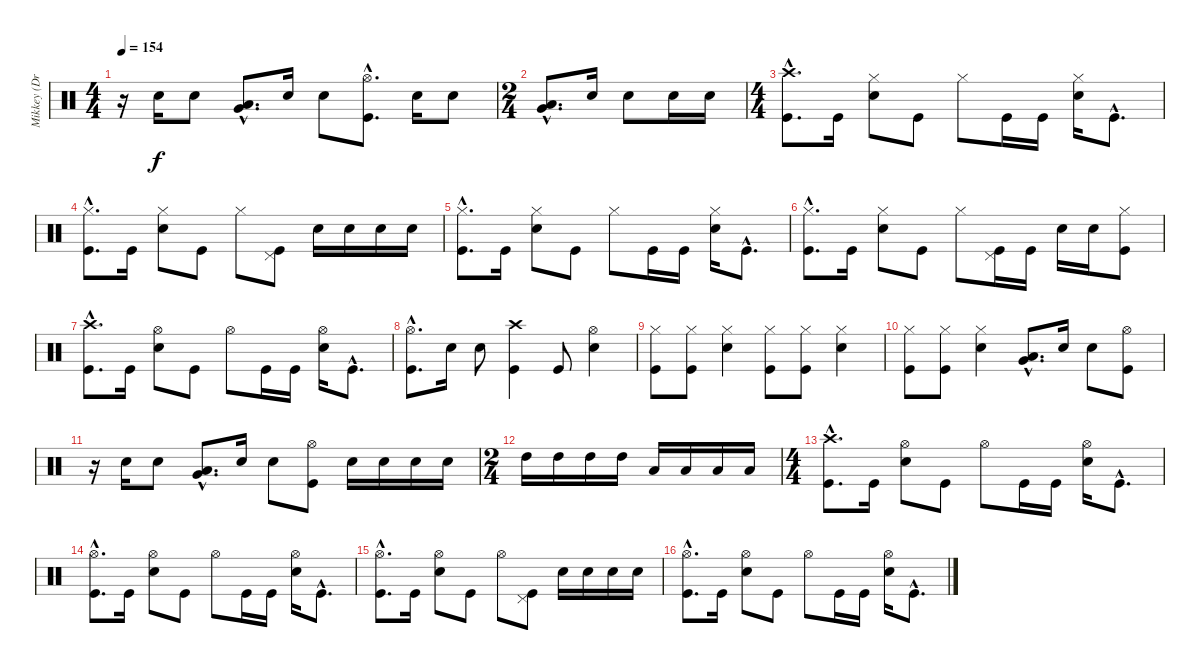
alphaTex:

\track ("Mikkey (Drums)" "Mikkey (Dr") {instrument percussion}
\staff {score}
\articulation defaults
\ts (4 4)
\tempo 154
\clef neutral
\ks c
r.16{dy f} "Electric Snare (hit)".16 "Electric Snare (hit)".8 ("Low Tom (hit)"{hac} "Very Low Tom (hit)"{hac}).8{d bd 120} "Electric Snare (hit)".16 "Electric Snare (hit)".8 ("Hi-Hat (open)"{hac} "Kick (hit)"{hac}).8{d} "Electric Snare (hit)".16 "Electric Snare (hit)".8 |
\ts (2 4)
("Low Tom (hit)"{hac} "Very Low Tom (hit)"{hac}).8{d bd 120} "Electric Snare (hit)".16 "Electric Snare (hit)".8 "Electric Snare (hit)".16 "Electric Snare (hit)".16 |
\ts (4 4)
("Crash high (hit)"{hac} "Kick (hit)"{hac}).8{d} "Kick (hit)".16 ("Hi-Hat (closed)" "Electric Snare (hit)").8 "Kick (hit)".8 "Hi-Hat (closed)".8 "Kick (hit)".16 "Kick (hit)".16 ("Hi-Hat (closed)" "Electric Snare (hit)").16 "Kick (hit)"{hac}.8{d} |
("Hi-Hat (closed)"{hac} "Kick (hit)"{hac}).8{d} "Kick (hit)".16 ("Hi-Hat (closed)" "Electric Snare (hit)").8 "Kick (hit)".8 "Hi-Hat (closed)".8 ("Pedal Hi-Hat (hit)" "Kick (hit)").8 "Electric Snare (hit)".16 "Electric Snare (hit)".16 "Electric Snare (hit)".16 "Electric Snare (hit)".16 |
("Hi-Hat (closed)"{hac} "Kick (hit)"{hac}).8{d} "Kick (hit)".16 ("Hi-Hat (closed)" "Electric Snare (hit)").8 "Kick (hit)".8 "Hi-Hat (closed)".8 "Kick (hit)".16 "Kick (hit)".16 ("Hi-Hat (closed)" "Electric Snare (hit)").16 "Kick (hit)"{hac}.8{d} |
("Hi-Hat (closed)"{hac} "Kick (hit)"{hac}).8{d} "Kick (hit)".16 ("Hi-Hat (closed)" "Electric Snare (hit)").8 "Kick (hit)".8 "Hi-Hat (closed)".8 ("Pedal Hi-Hat (hit)" "Kick (hit)").16 "Kick (hit)".16 "Electric Snare (hit)".16 "Electric Snare (hit)".16 ("Hi-Hat (closed)" "Kick (hit)").8 |
("Crash high (hit)"{hac} "Kick (hit)"{hac}).8{d} "Kick (hit)".16 ("Hi-Hat (open)" "Electric Snare (hit)").8 "Kick (hit)".8 "Hi-Hat (open)".8 "Kick (hit)".16 "Kick (hit)".16 ("Hi-Hat (open)" "Electric Snare (hit)").16 "Kick (hit)"{hac}.8{d} |
("Hi-Hat (open)"{hac} "Kick (hit)"{hac}).8{d} "Electric Snare (hit)".16 "Electric Snare (hit)".8 ("Crash high (hit)" "Kick (hit)").4 "Kick (hit)".8 ("Hi-Hat (open)" "Electric Snare (hit)").4 |
("Hi-Hat (closed)" "Kick (hit)").8 ("Hi-Hat (closed)" "Kick (hit)").8 ("Hi-Hat (closed)" "Electric Snare (hit)").4 ("Hi-Hat (closed)" "Kick (hit)").8 ("Hi-Hat (closed)" "Kick (hit)").8 ("Hi-Hat (closed)" "Electric Snare (hit)").4 |
("Hi-Hat (closed)" "Kick (hit)").8 ("Hi-Hat (closed)" "Kick (hit)").8 ("Hi-Hat (closed)" "Electric Snare (hit)").4 ("Low Tom (hit)"{hac} "Very Low Tom (hit)"{hac}).8{d bd 120} "Electric Snare (hit)".16 "Electric Snare (hit)".8 ("Hi-Hat (open)" "Kick (hit)").8 |
r.16 "Electric Snare (hit)".16 "Electric Snare (hit)".8 ("Low Tom (hit)"{hac} "Very Low Tom (hit)"{hac}).8{d bd 120} "Electric Snare (hit)".16 "Electric Snare (hit)".8 ("Hi-Hat (open)" "Kick (hit)").8 "Electric Snare (hit)".16 "Electric Snare (hit)".16 "Electric Snare (hit)".16 "Electric Snare (hit)".16 |
\ts (2 4)
"High Tom (hit)".16 "High Tom (hit)".16 "High Tom (hit)".16 "High Tom (hit)".16 "Low Tom (hit)".16 "Low Tom (hit)".16 "Low Tom (hit)".16 "Low Tom (hit)".16 |
\ts (4 4)
("Crash high (hit)"{hac} "Kick (hit)"{hac}).8{d} "Kick (hit)".16 ("Hi-Hat (open)" "Electric Snare (hit)").8 "Kick (hit)".8 "Hi-Hat (open)".8 "Kick (hit)".16 "Kick (hit)".16 ("Hi-Hat (open)" "Electric Snare (hit)").16 "Kick (hit)"{hac}.8{d} |
("Hi-Hat (open)"{hac} "Kick (hit)"{hac}).8{d} "Kick (hit)".16 ("Hi-Hat (open)" "Electric Snare (hit)").8 "Kick (hit)".8 "Hi-Hat (open)".8 "Kick (hit)".16 "Kick (hit)".16 ("Hi-Hat (open)" "Electric Snare (hit)").16 "Kick (hit)"{hac}.8{d} |
("Hi-Hat (open)"{hac} "Kick (hit)"{hac}).8{d} "Kick (hit)".16 ("Hi-Hat (open)" "Electric Snare (hit)").8 "Kick (hit)".8 "Hi-Hat (open)".8 ("Pedal Hi-Hat (hit)" "Kick (hit)").8 "Electric Snare (hit)".16 "Electric Snare (hit)".16 "Electric Snare (hit)".16 "Electric Snare (hit)".16 |
("Hi-Hat (open)"{hac} "Kick (hit)"{hac}).8{d} "Kick (hit)".16 ("Hi-Hat (open)" "Electric Snare (hit)").8 "Kick (hit)".8 "Hi-Hat (open)".8 "Kick (hit)".16 "Kick (hit)".16 ("Hi-Hat (open)" "Electric Snare (hit)").16 "Kick (hit)"{hac}.8{d}
